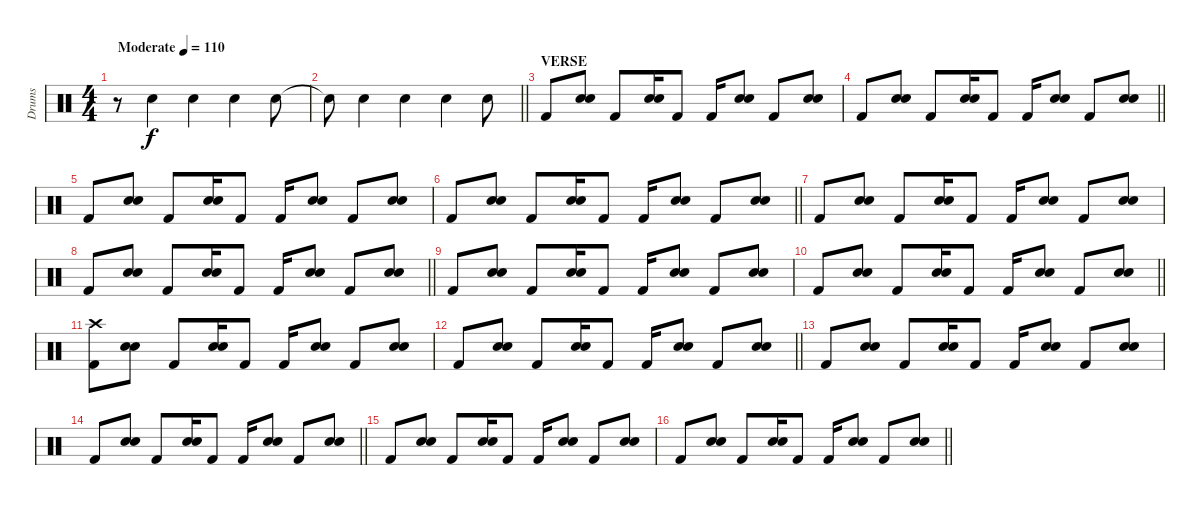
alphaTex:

\track ("Drums" "Drums") {instrument percussion}
\staff {score}
\articulation defaults
\ts (4 4)
\tempo (110 "Moderate")
\clef neutral
\ks c
r.8{dy f} "Hand Clap (hit)".4 "Hand Clap (hit)".4 "Hand Clap (hit)".4 "Hand Clap (hit)".8 |
\barLineRight lightlight "Hand Clap (hit)"{t}.8 "Hand Clap (hit)".4 "Hand Clap (hit)".4 "Hand Clap (hit)".4 "Hand Clap (hit)".8
|
\section ("" "VERSE")
"Kick (hit) 2".8 ("Snare (hit) 2" "Snare (hit) 2").8 "Kick (hit) 2".8 ("Snare (hit) 2" "Snare (hit) 2").16 "Kick (hit) 2".8 "Kick (hit) 2".16 ("Snare (hit) 2" "Snare (hit) 2").8 "Kick (hit) 2".8 ("Snare (hit) 2" "Snare (hit) 2").8 |
\barLineRight lightlight "Kick (hit) 2".8
("Snare (hit) 2" "Snare (hit) 2").8 "Kick (hit) 2".8 ("Snare (hit) 2" "Snare (hit) 2").16 "Kick (hit) 2".8 "Kick (hit) 2".16 ("Snare (hit) 2" "Snare (hit) 2").8 "Kick (hit) 2".8 ("Snare (hit) 2" "Snare (hit) 2").8 |
"Kick (hit) 2".8 ("Snare (hit) 2" "Snare (hit) 2").8 "Kick (hit) 2".8 ("Snare (hit) 2" "Snare (hit) 2").16 "Kick (hit) 2".8 "Kick (hit) 2".16 ("Snare (hit) 2" "Snare (hit) 2").8 "Kick (hit) 2".8 ("Snare (hit) 2" "Snare (hit) 2").8 |
\barLineRight lightlight "Kick (hit) 2".8
("Snare (hit) 2" "Snare (hit) 2").8 "Kick (hit) 2".8 ("Snare (hit) 2" "Snare (hit) 2").16 "Kick (hit) 2".8 "Kick (hit) 2".16 ("Snare (hit) 2" "Snare (hit) 2").8 "Kick (hit) 2".8 ("Snare (hit) 2" "Snare (hit) 2").8 |
"Kick (hit) 2".8 ("Snare (hit) 2" "Snare (hit) 2").8 "Kick (hit) 2".8 ("Snare (hit) 2" "Snare (hit) 2").16 "Kick (hit) 2".8 "Kick (hit) 2".16 ("Snare (hit) 2" "Snare (hit) 2").8 "Kick (hit) 2".8 ("Snare (hit) 2" "Snare (hit) 2").8 |
\barLineRight lightlight "Kick (hit) 2".8
("Snare (hit) 2" "Snare (hit) 2").8 "Kick (hit) 2".8 ("Snare (hit) 2" "Snare (hit) 2").16 "Kick (hit) 2".8 "Kick (hit) 2".16 ("Snare (hit) 2" "Snare (hit) 2").8 "Kick (hit) 2".8 ("Snare (hit) 2" "Snare (hit) 2").8 |
"Kick (hit) 2".8 ("Snare (hit) 2" "Snare (hit) 2").8 "Kick (hit) 2".8 ("Snare (hit) 2" "Snare (hit) 2").16 "Kick (hit) 2".8 "Kick (hit) 2".16 ("Snare (hit) 2" "Snare (hit) 2").8 "Kick (hit) 2".8 ("Snare (hit) 2" "Snare (hit) 2").8 |
\barLineRight lightlight "Kick (hit) 2".8
("Snare (hit) 2" "Snare (hit) 2").8 "Kick (hit) 2".8 ("Snare (hit) 2" "Snare (hit) 2").16 "Kick (hit) 2".8 "Kick (hit) 2".16 ("Snare (hit) 2" "Snare (hit) 2").8 "Kick (hit) 2".8 ("Snare (hit) 2" "Snare (hit) 2").8 |
\section ("" "")
("Kick (hit) 2" "Crash high (hit)").8 ("Snare (hit) 2" "Snare (hit) 2").8 "Kick (hit) 2".8 ("Snare (hit) 2" "Snare (hit) 2").16 "Kick (hit) 2".8 "Kick (hit) 2".16 ("Snare (hit) 2" "Snare (hit) 2").8 "Kick (hit) 2".8 ("Snare (hit) 2" "Snare (hit) 2").8 |
\barLineRight lightlight "Kick (hit) 2".8
("Snare (hit) 2" "Snare (hit) 2").8 "Kick (hit) 2".8 ("Snare (hit) 2" "Snare (hit) 2").16 "Kick (hit) 2".8 "Kick (hit) 2".16 ("Snare (hit) 2" "Snare (hit) 2").8 "Kick (hit) 2".8 ("Snare (hit) 2" "Snare (hit) 2").8 |
"Kick (hit) 2".8 ("Snare (hit) 2" "Snare (hit) 2").8 "Kick (hit) 2".8 ("Snare (hit) 2" "Snare (hit) 2").16 "Kick (hit) 2".8 "Kick (hit) 2".16 ("Snare (hit) 2" "Snare (hit) 2").8 "Kick (hit) 2".8 ("Snare (hit) 2" "Snare (hit) 2").8 |
\barLineRight lightlight "Kick (hit) 2".8
("Snare (hit) 2" "Snare (hit) 2").8 "Kick (hit) 2".8 ("Snare (hit) 2" "Snare (hit) 2").16 "Kick (hit) 2".8 "Kick (hit) 2".16 ("Snare (hit) 2" "Snare (hit) 2").8 "Kick (hit) 2".8 ("Snare (hit) 2" "Snare (hit) 2").8 |
"Kick (hit) 2".8 ("Snare (hit) 2" "Snare (hit) 2").8 "Kick (hit) 2".8 ("Snare (hit) 2" "Snare (hit) 2").16 "Kick (hit) 2".8 "Kick (hit) 2".16 ("Snare (hit) 2" "Snare (hit) 2").8 "Kick (hit) 2".8 ("Snare (hit) 2" "Snare (hit) 2").8 |
\barLineRight lightlight "Kick (hit) 2".8
("Snare (hit) 2" "Snare (hit) 2").8 "Kick (hit) 2".8 ("Snare (hit) 2" "Snare (hit) 2").16 "Kick (hit) 2".8 "Kick (hit) 2".16 ("Snare (hit) 2" "Snare (hit) 2").8 "Kick (hit) 2".8 ("Snare (hit) 2" "Snare (hit) 2").8
